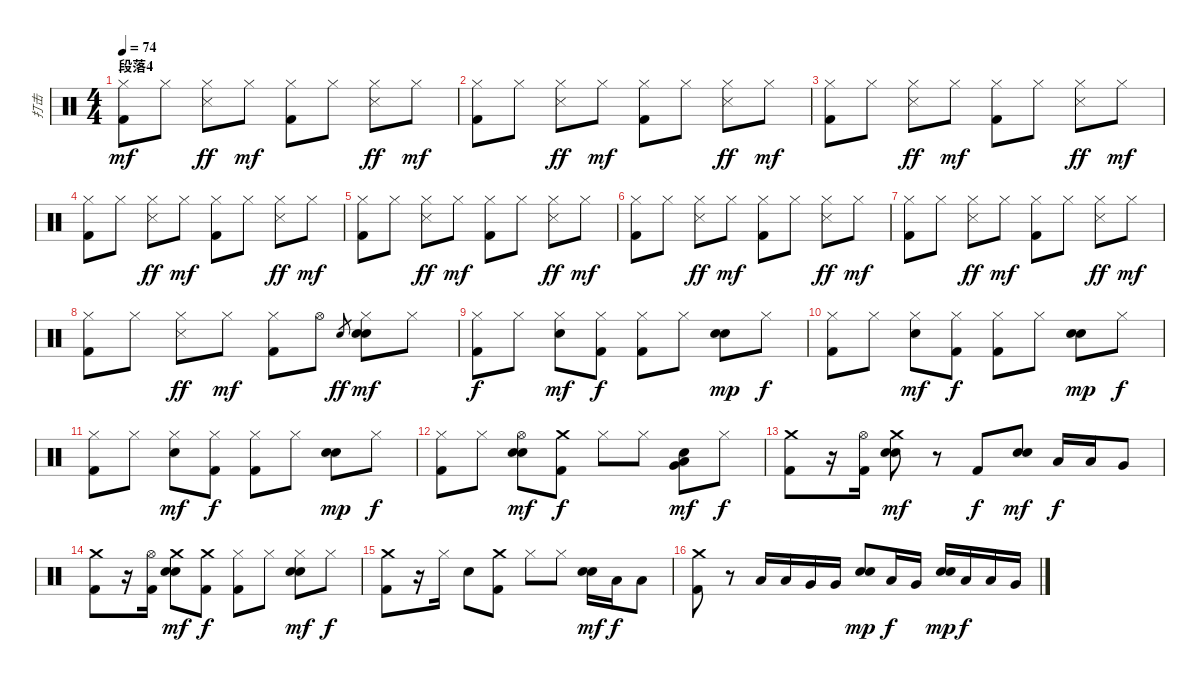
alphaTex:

\track ("打击" "打击") {instrument percussion}
\staff {score}
\articulation defaults
\ts (4 4)
\section ("" "段落4")
\tempo 74
\clef neutral
\ks c
("Hi-Hat (closed)" "Kick (hit) 2").8{dy mf} "Hi-Hat (closed)".8 ("Hi-Hat (closed)" "Snare (side stick) 3").8{dy ff} "Hi-Hat (closed)".8{dy mf} ("Hi-Hat (closed)" "Kick (hit) 2").8 "Hi-Hat (closed)".8 ("Hi-Hat (closed)" "Snare (side stick) 3").8{dy ff} "Hi-Hat (closed)".8{dy mf} |
("Hi-Hat (closed)" "Kick (hit) 2").8 "Hi-Hat (closed)".8 ("Hi-Hat (closed)" "Snare (side stick) 3").8{dy ff} "Hi-Hat (closed)".8{dy mf} ("Hi-Hat (closed)" "Kick (hit) 2").8 "Hi-Hat (closed)".8 ("Hi-Hat (closed)" "Snare (side stick) 3").8{dy ff} "Hi-Hat (closed)".8{dy mf} |
("Hi-Hat (closed)" "Kick (hit) 2").8 "Hi-Hat (closed)".8 ("Hi-Hat (closed)" "Snare (side stick) 3").8{dy ff} "Hi-Hat (closed)".8{dy mf} ("Hi-Hat (closed)" "Kick (hit) 2").8 "Hi-Hat (closed)".8 ("Hi-Hat (closed)" "Snare (side stick) 3").8{dy ff} "Hi-Hat (closed)".8{dy mf} |
("Hi-Hat (closed)" "Kick (hit) 2").8 "Hi-Hat (closed)".8 ("Hi-Hat (closed)" "Snare (side stick) 3").8{dy ff} "Hi-Hat (closed)".8{dy mf} ("Hi-Hat (closed)" "Kick (hit) 2").8 "Hi-Hat (closed)".8 ("Hi-Hat (closed)" "Snare (side stick) 3").8{dy ff} "Hi-Hat (closed)".8{dy mf} |
("Hi-Hat (closed)" "Kick (hit) 2").8 "Hi-Hat (closed)".8 ("Hi-Hat (closed)" "Snare (side stick) 3").8{dy ff} "Hi-Hat (closed)".8{dy mf} ("Hi-Hat (closed)" "Kick (hit) 2").8 "Hi-Hat (closed)".8 ("Hi-Hat (closed)" "Snare (side stick) 3").8{dy ff} "Hi-Hat (closed)".8{dy mf} |
("Hi-Hat (closed)" "Kick (hit) 2").8 "Hi-Hat (closed)".8 ("Hi-Hat (closed)" "Snare (side stick) 3").8{dy ff} "Hi-Hat (closed)".8{dy mf} ("Hi-Hat (closed)" "Kick (hit) 2").8 "Hi-Hat (closed)".8 ("Hi-Hat (closed)" "Snare (side stick) 3").8{dy ff} "Hi-Hat (closed)".8{dy mf} |
("Hi-Hat (closed)" "Kick (hit) 2").8 "Hi-Hat (closed)".8 ("Hi-Hat (closed)" "Snare (side stick) 3").8{dy ff} "Hi-Hat (closed)".8{dy mf} ("Hi-Hat (closed)" "Kick (hit) 2").8 "Hi-Hat (closed)".8 ("Hi-Hat (closed)" "Snare (side stick) 3").8{dy ff} "Hi-Hat (closed)".8{dy mf} |
("Hi-Hat (closed)" "Kick (hit) 2").8 "Hi-Hat (closed)".8 ("Hi-Hat (closed)" "Snare (side stick) 3").8{dy ff} "Hi-Hat (closed)".8{dy mf} ("Hi-Hat (closed)" "Kick (hit) 2").8 "Hi-Hat (open)".8 "Snare (hit) 2".8{gr dy ff} ("Hi-Hat (closed)" "Snare (hit) 2" "Electric Snare (hit)").8{dy mf} "Hi-Hat (closed)".8 |
("Hi-Hat (closed)" "Kick (hit) 2").8{dy f} "Hi-Hat (closed)".8 ("Hi-Hat (closed)" "Electric Snare (hit)").8{dy mf} ("Hi-Hat (closed)" "Kick (hit) 2").8{dy f} ("Hi-Hat (closed)" "Kick (hit) 2").8 "Hi-Hat (closed)".8 ("Snare (hit) 2" "Electric Snare (hit)").8{dy mp} "Hi-Hat (closed)".8{dy f} |
("Hi-Hat (closed)" "Kick (hit) 2").8 "Hi-Hat (closed)".8 ("Hi-Hat (closed)" "Electric Snare (hit)").8{dy mf} ("Hi-Hat (closed)" "Kick (hit) 2").8{dy f} ("Hi-Hat (closed)" "Kick (hit) 2").8 "Hi-Hat (closed)".8 ("Snare (hit) 2" "Electric Snare (hit)").8{dy mp} "Hi-Hat (closed)".8{dy f} |
("Hi-Hat (closed)" "Kick (hit) 2").8 "Hi-Hat (closed)".8 ("Hi-Hat (closed)" "Electric Snare (hit)").8{dy mf} ("Hi-Hat (closed)" "Kick (hit) 2").8{dy f} ("Hi-Hat (closed)" "Kick (hit) 2").8 "Hi-Hat (closed)".8 ("Snare (hit) 2" "Electric Snare (hit)").8{dy mp} "Hi-Hat (closed)".8{dy f} |
("Hi-Hat (closed)" "Kick (hit) 2").8 "Hi-Hat (closed)".8 ("Hi-Hat (open)" "Snare (hit) 2" "Electric Snare (hit)").8{dy mf} ("Crash medium (hit)" "Kick (hit) 2").8{dy f} "Hi-Hat (closed)".8 "Hi-Hat (closed)".8 ("Low Tom (hit)" "Very Low Tom (hit)" "Snare (hit) 2").8{dy mf} "Hi-Hat (closed)".8{dy f} |
("Crash medium (hit)" "Kick (hit) 2").8 r.16 ("Hi-Hat (open)" "Kick (hit) 2").16 ("Crash medium (hit)" "Snare (hit) 2" "Electric Snare (hit)").8{dy mf} r.8 "Kick (hit) 2".8{dy f} ("Snare (hit) 2" "Electric Snare (hit)").8{dy mf} "Low Tom (hit)".16{dy f} "Low Tom (hit)".16 "Very Low Tom (hit)".8 |
("Crash medium (hit)" "Kick (hit) 2").8 r.16 ("Hi-Hat (open)" "Kick (hit) 2").16 ("Crash medium (hit)" "Snare (hit) 2" "Electric Snare (hit)").8{dy mf} ("Crash medium (hit)" "Kick (hit) 2").8{dy f} ("Hi-Hat (closed)" "Kick (hit) 2").8 "Hi-Hat (closed)".8 ("Hi-Hat (closed)" "Snare (hit) 2" "Electric Snare (hit)").8{dy mf} "Hi-Hat (closed)".8{dy f} |
("Crash medium (hit)" "Kick (hit) 2").8 r.16 "Hi-Hat (closed)".16 "Electric Snare (hit)".8 ("Crash medium (hit)" "Kick (hit) 2").8 "Hi-Hat (closed)".8 "Hi-Hat (closed)".8 ("Snare (hit) 2" "Electric Snare (hit)").16{dy mf} "Low Tom (hit)".16{dy f} "Low Tom (hit)".8 |
("Crash medium (hit)" "Kick (hit) 2").8 r.8 "Low Tom (hit)".16 "Low Tom (hit)".16 "Very Low Tom (hit)".16 "Very Low Tom (hit)".16 ("Snare (hit) 2" "Electric Snare (hit)").8{dy mp} "Low Tom (hit)".16{dy f} "Very Low Tom (hit)".16 ("Snare (hit) 2" "Electric Snare (hit)").16{dy mp} "Low Tom (hit)".16{dy f} "Low Tom (hit)".16 "Very Low Tom (hit)".16
